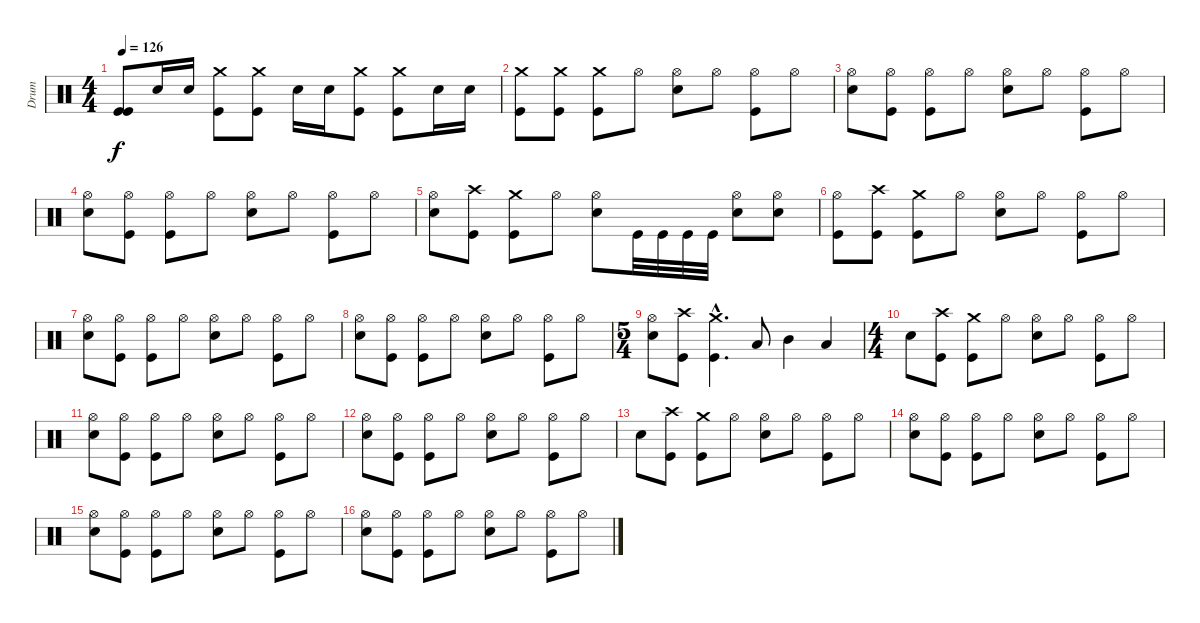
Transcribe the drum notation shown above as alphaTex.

\track ("Drum" "Drum") {instrument percussion}
\staff {score}
\articulation defaults
\ts (4 4)
\tempo 126
\clef neutral
\ks c
("Kick (hit)" "Kick (hit)").8{dy f} "Snare (hit) 2".16 "Snare (hit) 2".16 ("Crash medium (hit)" "Kick (hit)").8 ("Crash medium (hit)" "Kick (hit)").8 "Snare (hit) 2".16 "Snare (hit) 2".16 ("Crash medium (hit)" "Kick (hit)").8 ("Crash medium (hit)" "Kick (hit)").8 "Snare (hit) 2".16 "Snare (hit) 2".16 |
("Crash medium (hit)" "Kick (hit)").8 ("Crash medium (hit)" "Kick (hit)").8 ("Crash medium (hit)" "Kick (hit)").8 "Hi-Hat (open)".8 ("Hi-Hat (open)" "Snare (hit) 2").8 "Hi-Hat (open)".8 ("Hi-Hat (open)" "Kick (hit)").8 "Hi-Hat (open)".8 |
("Hi-Hat (open)" "Snare (hit) 2").8 ("Hi-Hat (open)" "Kick (hit)").8 ("Hi-Hat (open)" "Kick (hit)").8 "Hi-Hat (open)".8 ("Hi-Hat (open)" "Snare (hit) 2").8 "Hi-Hat (open)".8 ("Hi-Hat (open)" "Kick (hit)").8 "Hi-Hat (open)".8 |
("Hi-Hat (open)" "Snare (hit) 2").8 ("Hi-Hat (open)" "Kick (hit)").8 ("Hi-Hat (open)" "Kick (hit)").8 "Hi-Hat (open)".8 ("Hi-Hat (open)" "Snare (hit) 2").8 "Hi-Hat (open)".8 ("Hi-Hat (open)" "Kick (hit)").8 "Hi-Hat (open)".8 |
("Hi-Hat (open)" "Snare (hit) 2").8 ("Crash high (hit)" "Kick (hit)").8 ("Crash medium (hit)" "Kick (hit)").8 "Hi-Hat (open)".8 ("Hi-Hat (open)" "Snare (hit) 2").8 "Kick (hit)".32 "Kick (hit)".32 "Kick (hit)".32 "Kick (hit)".32 ("Hi-Hat (open)" "Snare (hit) 2").8 ("Hi-Hat (open)" "Snare (hit) 2").8 |
("Hi-Hat (open)" "Kick (hit)").8 ("Crash high (hit)" "Kick (hit)").8 ("Crash medium (hit)" "Kick (hit)").8 "Hi-Hat (open)".8 ("Hi-Hat (open)" "Snare (hit) 2").8 "Hi-Hat (open)".8 ("Hi-Hat (open)" "Kick (hit)").8 "Hi-Hat (open)".8 |
("Hi-Hat (open)" "Snare (hit) 2").8 ("Hi-Hat (open)" "Kick (hit)").8 ("Hi-Hat (open)" "Kick (hit)").8 "Hi-Hat (open)".8 ("Hi-Hat (open)" "Snare (hit) 2").8 "Hi-Hat (open)".8 ("Hi-Hat (open)" "Kick (hit)").8 "Hi-Hat (open)".8 |
("Hi-Hat (open)" "Snare (hit) 2").8 ("Hi-Hat (open)" "Kick (hit)").8 ("Hi-Hat (open)" "Kick (hit)").8 "Hi-Hat (open)".8 ("Hi-Hat (open)" "Snare (hit) 2").8 "Hi-Hat (open)".8 ("Hi-Hat (open)" "Kick (hit)").8 "Hi-Hat (open)".8 |
\ts (5 4)
("Hi-Hat (open)" "Snare (hit) 2").8 ("Crash high (hit)" "Kick (hit)").8 ("Crash medium (hit)"{hac} "Kick (hit)"{hac}).4{d} "Low Tom (hit)".8 "Mid Tom (hit)".4 "Low Floor Tom (hit)".4 |
\ts (4 4)
"Snare (hit) 2".8 ("Crash high (hit)" "Kick (hit)").8 ("Crash medium (hit)" "Kick (hit)").8 "Hi-Hat (open)".8 ("Hi-Hat (open)" "Snare (hit) 2").8 "Hi-Hat (open)".8 ("Hi-Hat (open)" "Kick (hit)").8 "Hi-Hat (open)".8 |
("Hi-Hat (open)" "Snare (hit) 2").8 ("Hi-Hat (open)" "Kick (hit)").8 ("Hi-Hat (open)" "Kick (hit)").8 "Hi-Hat (open)".8 ("Hi-Hat (open)" "Snare (hit) 2").8 "Hi-Hat (open)".8 ("Hi-Hat (open)" "Kick (hit)").8 "Hi-Hat (open)".8 |
("Hi-Hat (open)" "Snare (hit) 2").8 ("Hi-Hat (open)" "Kick (hit)").8 ("Hi-Hat (open)" "Kick (hit)").8 "Hi-Hat (open)".8 ("Hi-Hat (open)" "Snare (hit) 2").8 "Hi-Hat (open)".8 ("Hi-Hat (open)" "Kick (hit)").8 "Hi-Hat (open)".8 |
"Snare (hit) 2".8 ("Crash high (hit)" "Kick (hit)").8 ("Crash medium (hit)" "Kick (hit)").8 "Hi-Hat (open)".8 ("Hi-Hat (open)" "Snare (hit) 2").8 "Hi-Hat (open)".8 ("Hi-Hat (open)" "Kick (hit)").8 "Hi-Hat (open)".8 |
("Hi-Hat (open)" "Snare (hit) 2").8 ("Hi-Hat (open)" "Kick (hit)").8 ("Hi-Hat (open)" "Kick (hit)").8 "Hi-Hat (open)".8 ("Hi-Hat (open)" "Snare (hit) 2").8 "Hi-Hat (open)".8 ("Hi-Hat (open)" "Kick (hit)").8 "Hi-Hat (open)".8 |
("Hi-Hat (open)" "Snare (hit) 2").8 ("Hi-Hat (open)" "Kick (hit)").8 ("Hi-Hat (open)" "Kick (hit)").8 "Hi-Hat (open)".8 ("Hi-Hat (open)" "Snare (hit) 2").8 "Hi-Hat (open)".8 ("Hi-Hat (open)" "Kick (hit)").8 "Hi-Hat (open)".8 |
("Hi-Hat (open)" "Snare (hit) 2").8 ("Hi-Hat (open)" "Kick (hit)").8 ("Hi-Hat (open)" "Kick (hit)").8 "Hi-Hat (open)".8 ("Hi-Hat (open)" "Snare (hit) 2").8 "Hi-Hat (open)".8 ("Hi-Hat (open)" "Kick (hit)").8 "Hi-Hat (open)".8
